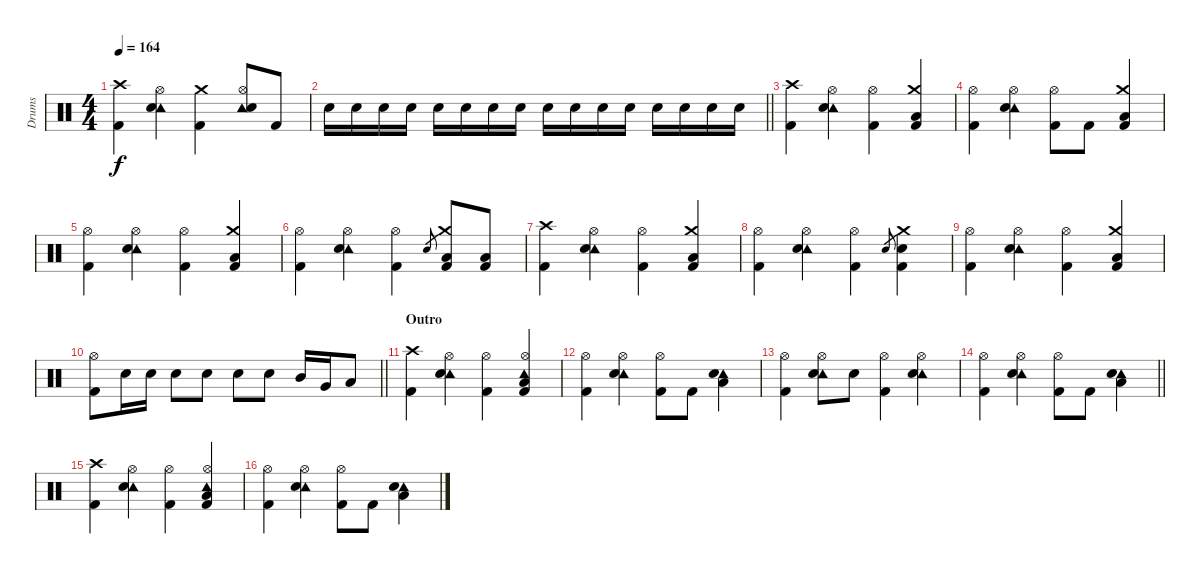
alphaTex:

\track ("Drums" "Drums") {instrument percussion}
\staff {score}
\articulation defaults
\ts (4 4)
\tempo 164
\clef neutral
\ks c
("Crash high (hit)" "Kick (hit) 2").4{dy f} ("Tambourine (hit)" "Hi-Hat (open)" "Snare (hit) 2").4 ("Crash medium (hit)" "Kick (hit) 2").4 ("Tambourine (hit)" "Hi-Hat (open)" "Snare (hit) 2").8 "Kick (hit) 2".8 |
\barLineRight lightlight "Snare (hit) 2".16 "Snare (hit) 2".16 "Snare (hit) 2".16 "Snare (hit) 2".16 "Snare (hit) 2".16 "Snare (hit) 2".16 "Snare (hit) 2".16 "Snare (hit) 2".16 "Snare (hit) 2".16 "Snare (hit) 2".16 "Snare (hit) 2".16 "Snare (hit) 2".16 "Snare (hit) 2".16 "Snare (hit) 2".16 "Snare (hit) 2".16 "Snare (hit) 2".16
|
("Crash high (hit)" "Kick (hit) 2").4 ("Tambourine (hit)" "Hi-Hat (open)" "Snare (hit) 2").4 ("Hi-Hat (open)" "Kick (hit) 2").4 ("Crash medium (hit)" "Low Tom (hit)" "Kick (hit) 2").4 |
("Hi-Hat (open)" "Kick (hit) 2").4 ("Tambourine (hit)" "Hi-Hat (open)" "Snare (hit) 2").4 ("Hi-Hat (open)" "Kick (hit) 2").8 "Kick (hit) 2".8 ("Crash medium (hit)" "Low Tom (hit)" "Kick (hit) 2").4 |
("Hi-Hat (open)" "Kick (hit) 2").4 ("Tambourine (hit)" "Hi-Hat (open)" "Snare (hit) 2").4 ("Hi-Hat (open)" "Kick (hit) 2").4 ("Crash medium (hit)" "Low Tom (hit)" "Kick (hit) 2").4 |
("Hi-Hat (open)" "Kick (hit) 2").4 ("Tambourine (hit)" "Hi-Hat (open)" "Snare (hit) 2").4 ("Hi-Hat (open)" "Kick (hit) 2").4 "Snare (hit) 2".8{gr} ("Crash medium (hit)" "Low Tom (hit)" "Kick (hit) 2").8 ("Low Tom (hit)" "Kick (hit) 2").8 |
("Crash high (hit)" "Kick (hit) 2").4 ("Tambourine (hit)" "Hi-Hat (open)" "Snare (hit) 2").4 ("Hi-Hat (open)" "Kick (hit) 2").4 ("Crash medium (hit)" "Low Tom (hit)" "Kick (hit) 2").4 |
("Hi-Hat (open)" "Kick (hit) 2").4 ("Tambourine (hit)" "Hi-Hat (open)" "Snare (hit) 2").4 ("Hi-Hat (open)" "Kick (hit) 2").4 "Snare (hit) 2".8{gr} ("Crash medium (hit)" "Snare (hit) 2" "Kick (hit) 2").4 |
("Hi-Hat (open)" "Kick (hit) 2").4 ("Tambourine (hit)" "Hi-Hat (open)" "Snare (hit) 2").4 ("Hi-Hat (open)" "Kick (hit) 2").4 ("Crash medium (hit)" "Low Tom (hit)" "Kick (hit) 2").4 |
\barLineRight lightlight
("Hi-Hat (open)" "Kick (hit) 2").8 "Snare (hit) 2".16 "Snare (hit) 2".16 "Snare (hit) 2".8 "Snare (hit) 2".8 "Snare (hit) 2".8 "Snare (hit) 2".8 "Mid Tom (hit)".16 "Very Low Tom (hit)".16 "Low Tom (hit)".8 |
\section ("" "Outro")
("Crash high (hit)" "Kick (hit) 2").4 ("Tambourine (hit)" "Hi-Hat (open)" "Snare (hit) 2").4 ("Hi-Hat (open)" "Kick (hit) 2").4 ("Tambourine (hit)" "Hi-Hat (open)" "Low Tom (hit)" "Kick (hit) 2").4 |
("Hi-Hat (open)" "Kick (hit) 2").4 ("Tambourine (hit)" "Hi-Hat (open)" "Snare (hit) 2").4 ("Hi-Hat (open)" "Kick (hit) 2").8 "Kick (hit) 2".8 ("Tambourine (hit)" "Snare (hit) 2" "Low Tom (hit)").4 |
("Hi-Hat (open)" "Kick (hit) 2").4 ("Tambourine (hit)" "Hi-Hat (open)" "Snare (hit) 2").8 "Snare (hit) 2".8 ("Hi-Hat (open)" "Kick (hit) 2").4 ("Tambourine (hit)" "Hi-Hat (open)" "Snare (hit) 2").4 |
\barLineRight lightlight
("Hi-Hat (open)" "Kick (hit) 2").4 ("Tambourine (hit)" "Hi-Hat (open)" "Snare (hit) 2").4 ("Hi-Hat (open)" "Kick (hit) 2").8 "Kick (hit) 2".8 ("Tambourine (hit)" "Snare (hit) 2" "Low Tom (hit)").4 |
("Crash high (hit)" "Kick (hit) 2").4 ("Tambourine (hit)" "Hi-Hat (open)" "Snare (hit) 2").4 ("Hi-Hat (open)" "Kick (hit) 2").4 ("Tambourine (hit)" "Hi-Hat (open)" "Low Tom (hit)" "Kick (hit) 2").4 |
("Hi-Hat (open)" "Kick (hit) 2").4 ("Tambourine (hit)" "Hi-Hat (open)" "Snare (hit) 2").4 ("Hi-Hat (open)" "Kick (hit) 2").8 "Kick (hit) 2".8 ("Tambourine (hit)" "Snare (hit) 2" "Low Tom (hit)").4
